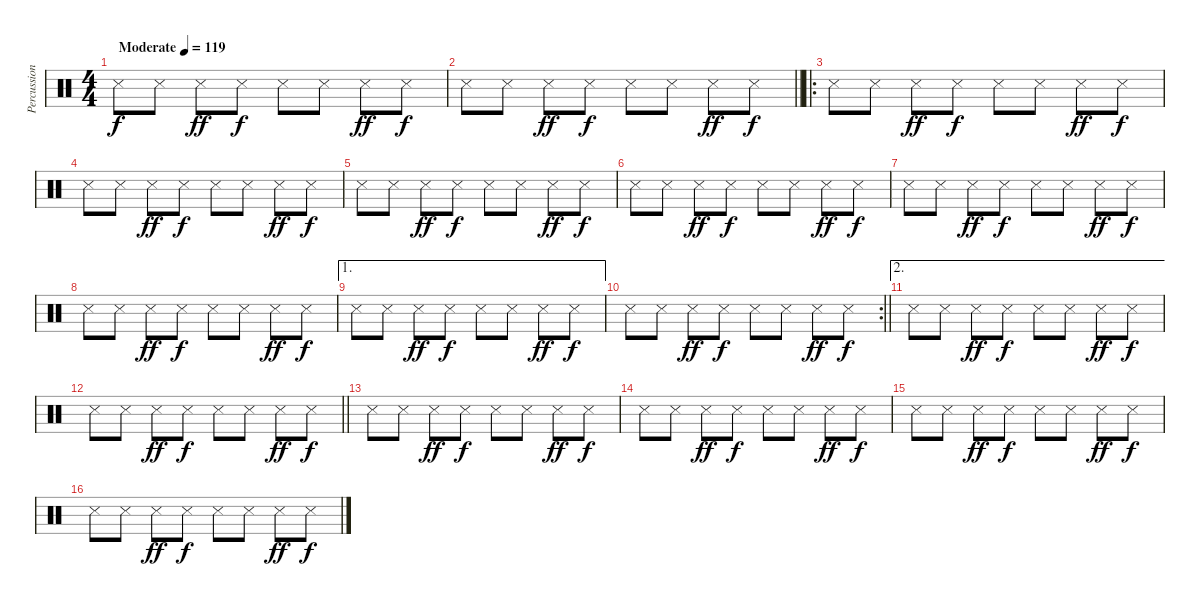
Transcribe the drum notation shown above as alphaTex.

\track ("Percussion" "Percussion") {instrument percussion}
\staff {score}
\articulation defaults
\ts (4 4)
\tempo (119 "Moderate")
\clef neutral
\ks c "Snare (side stick) 3".8{dy f} "Snare (side stick) 3".8 "Snare (side stick) 3".8{dy ff} "Snare (side stick) 3".8{dy f} "Snare (side stick) 3".8 "Snare (side stick) 3".8 "Snare (side stick) 3".8{dy ff} "Snare (side stick) 3".8{dy f}
|
\barLineRight lightlight "Snare (side stick) 3".8 "Snare (side stick) 3".8 "Snare (side stick) 3".8{dy ff} "Snare (side stick) 3".8{dy f} "Snare (side stick) 3".8 "Snare (side stick) 3".8 "Snare (side stick) 3".8{dy ff} "Snare (side stick) 3".8{dy f}
|
\ro "Snare (side stick) 3".8 "Snare (side stick) 3".8 "Snare (side stick) 3".8{dy ff} "Snare (side stick) 3".8{dy f} "Snare (side stick) 3".8 "Snare (side stick) 3".8 "Snare (side stick) 3".8{dy ff} "Snare (side stick) 3".8{dy f}
|
"Snare (side stick) 3".8 "Snare (side stick) 3".8 "Snare (side stick) 3".8{dy ff} "Snare (side stick) 3".8{dy f} "Snare (side stick) 3".8 "Snare (side stick) 3".8 "Snare (side stick) 3".8{dy ff} "Snare (side stick) 3".8{dy f} |
"Snare (side stick) 3".8 "Snare (side stick) 3".8 "Snare (side stick) 3".8{dy ff} "Snare (side stick) 3".8{dy f} "Snare (side stick) 3".8 "Snare (side stick) 3".8 "Snare (side stick) 3".8{dy ff} "Snare (side stick) 3".8{dy f} |
"Snare (side stick) 3".8 "Snare (side stick) 3".8 "Snare (side stick) 3".8{dy ff} "Snare (side stick) 3".8{dy f} "Snare (side stick) 3".8 "Snare (side stick) 3".8 "Snare (side stick) 3".8{dy ff} "Snare (side stick) 3".8{dy f} |
"Snare (side stick) 3".8 "Snare (side stick) 3".8 "Snare (side stick) 3".8{dy ff} "Snare (side stick) 3".8{dy f} "Snare (side stick) 3".8 "Snare (side stick) 3".8 "Snare (side stick) 3".8{dy ff} "Snare (side stick) 3".8{dy f} |
"Snare (side stick) 3".8 "Snare (side stick) 3".8 "Snare (side stick) 3".8{dy ff} "Snare (side stick) 3".8{dy f} "Snare (side stick) 3".8 "Snare (side stick) 3".8 "Snare (side stick) 3".8{dy ff} "Snare (side stick) 3".8{dy f} |
\ae 1 "Snare (side stick) 3".8 "Snare (side stick) 3".8 "Snare (side stick) 3".8{dy ff} "Snare (side stick) 3".8{dy f} "Snare (side stick) 3".8 "Snare (side stick) 3".8 "Snare (side stick) 3".8{dy ff} "Snare (side stick) 3".8{dy f}
|
\rc 2
\barLineRight lightlight "Snare (side stick) 3".8 "Snare (side stick) 3".8 "Snare (side stick) 3".8{dy ff} "Snare (side stick) 3".8{dy f} "Snare (side stick) 3".8 "Snare (side stick) 3".8 "Snare (side stick) 3".8{dy ff} "Snare (side stick) 3".8{dy f}
|
\ae 2 "Snare (side stick) 3".8 "Snare (side stick) 3".8 "Snare (side stick) 3".8{dy ff} "Snare (side stick) 3".8{dy f} "Snare (side stick) 3".8 "Snare (side stick) 3".8 "Snare (side stick) 3".8{dy ff} "Snare (side stick) 3".8{dy f}
|
\barLineRight lightlight "Snare (side stick) 3".8 "Snare (side stick) 3".8 "Snare (side stick) 3".8{dy ff} "Snare (side stick) 3".8{dy f} "Snare (side stick) 3".8 "Snare (side stick) 3".8 "Snare (side stick) 3".8{dy ff} "Snare (side stick) 3".8{dy f}
|
"Snare (side stick) 3".8 "Snare (side stick) 3".8 "Snare (side stick) 3".8{dy ff} "Snare (side stick) 3".8{dy f} "Snare (side stick) 3".8 "Snare (side stick) 3".8 "Snare (side stick) 3".8{dy ff} "Snare (side stick) 3".8{dy f} |
"Snare (side stick) 3".8 "Snare (side stick) 3".8 "Snare (side stick) 3".8{dy ff} "Snare (side stick) 3".8{dy f} "Snare (side stick) 3".8 "Snare (side stick) 3".8 "Snare (side stick) 3".8{dy ff} "Snare (side stick) 3".8{dy f} |
"Snare (side stick) 3".8 "Snare (side stick) 3".8 "Snare (side stick) 3".8{dy ff} "Snare (side stick) 3".8{dy f} "Snare (side stick) 3".8 "Snare (side stick) 3".8 "Snare (side stick) 3".8{dy ff} "Snare (side stick) 3".8{dy f} |
"Snare (side stick) 3".8 "Snare (side stick) 3".8 "Snare (side stick) 3".8{dy ff} "Snare (side stick) 3".8{dy f} "Snare (side stick) 3".8 "Snare (side stick) 3".8 "Snare (side stick) 3".8{dy ff} "Snare (side stick) 3".8{dy f}
